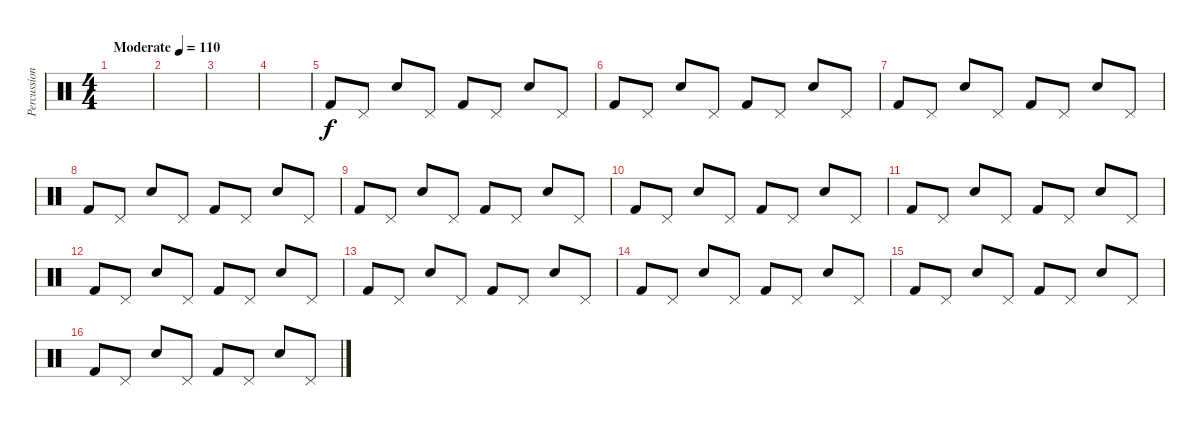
\track ("Percussion" "Percussion") {instrument percussion}
\staff {score}
\articulation defaults
\ts (4 4)
\tempo (110 "Moderate")
\clef neutral
\ks c
|
|
|
|
"Kick (hit) 2".8 "Pedal Hi-Hat (hit)".8 "Snare (hit) 2".8 "Pedal Hi-Hat (hit)".8 "Kick (hit) 2".8 "Pedal Hi-Hat (hit)".8 "Snare (hit) 2".8 "Pedal Hi-Hat (hit)".8 |
"Kick (hit) 2".8 "Pedal Hi-Hat (hit)".8 "Snare (hit) 2".8 "Pedal Hi-Hat (hit)".8 "Kick (hit) 2".8 "Pedal Hi-Hat (hit)".8 "Snare (hit) 2".8 "Pedal Hi-Hat (hit)".8 |
"Kick (hit) 2".8 "Pedal Hi-Hat (hit)".8 "Snare (hit) 2".8 "Pedal Hi-Hat (hit)".8 "Kick (hit) 2".8 "Pedal Hi-Hat (hit)".8 "Snare (hit) 2".8 "Pedal Hi-Hat (hit)".8 |
"Kick (hit) 2".8 "Pedal Hi-Hat (hit)".8 "Snare (hit) 2".8 "Pedal Hi-Hat (hit)".8 "Kick (hit) 2".8 "Pedal Hi-Hat (hit)".8 "Snare (hit) 2".8 "Pedal Hi-Hat (hit)".8 |
"Kick (hit) 2".8 "Pedal Hi-Hat (hit)".8 "Snare (hit) 2".8 "Pedal Hi-Hat (hit)".8 "Kick (hit) 2".8 "Pedal Hi-Hat (hit)".8 "Snare (hit) 2".8 "Pedal Hi-Hat (hit)".8 |
"Kick (hit) 2".8 "Pedal Hi-Hat (hit)".8 "Snare (hit) 2".8 "Pedal Hi-Hat (hit)".8 "Kick (hit) 2".8 "Pedal Hi-Hat (hit)".8 "Snare (hit) 2".8 "Pedal Hi-Hat (hit)".8 |
"Kick (hit) 2".8 "Pedal Hi-Hat (hit)".8 "Snare (hit) 2".8 "Pedal Hi-Hat (hit)".8 "Kick (hit) 2".8 "Pedal Hi-Hat (hit)".8 "Snare (hit) 2".8 "Pedal Hi-Hat (hit)".8 |
"Kick (hit) 2".8 "Pedal Hi-Hat (hit)".8 "Snare (hit) 2".8 "Pedal Hi-Hat (hit)".8 "Kick (hit) 2".8 "Pedal Hi-Hat (hit)".8 "Snare (hit) 2".8 "Pedal Hi-Hat (hit)".8 |
"Kick (hit) 2".8 "Pedal Hi-Hat (hit)".8 "Snare (hit) 2".8 "Pedal Hi-Hat (hit)".8 "Kick (hit) 2".8 "Pedal Hi-Hat (hit)".8 "Snare (hit) 2".8 "Pedal Hi-Hat (hit)".8 |
"Kick (hit) 2".8 "Pedal Hi-Hat (hit)".8 "Snare (hit) 2".8 "Pedal Hi-Hat (hit)".8 "Kick (hit) 2".8 "Pedal Hi-Hat (hit)".8 "Snare (hit) 2".8 "Pedal Hi-Hat (hit)".8 |
"Kick (hit) 2".8 "Pedal Hi-Hat (hit)".8 "Snare (hit) 2".8 "Pedal Hi-Hat (hit)".8 "Kick (hit) 2".8 "Pedal Hi-Hat (hit)".8 "Snare (hit) 2".8 "Pedal Hi-Hat (hit)".8 |
"Kick (hit) 2".8 "Pedal Hi-Hat (hit)".8 "Snare (hit) 2".8 "Pedal Hi-Hat (hit)".8 "Kick (hit) 2".8 "Pedal Hi-Hat (hit)".8 "Snare (hit) 2".8 "Pedal Hi-Hat (hit)".8
